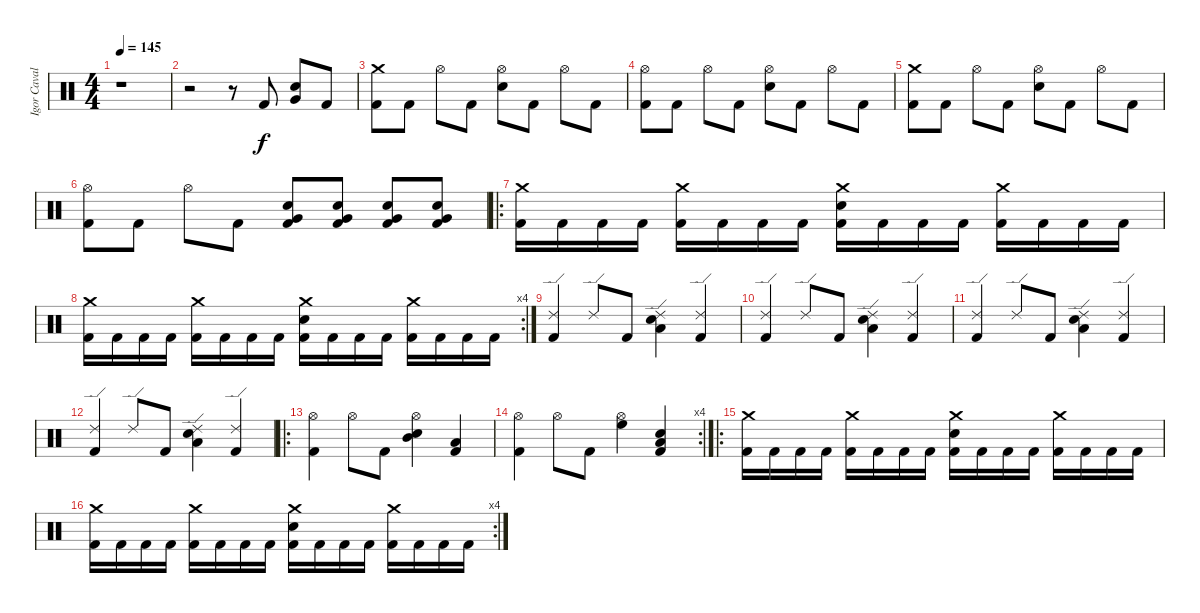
\track ("Igor Cavalera" "Igor Caval") {instrument percussion}
\staff {score}
\articulation defaults
\ts (4 4)
\tempo 145
\clef neutral
\ks c
r.1{dy f} |
r.2 r.8 "Kick (hit) 2".8 ("Very Low Tom (hit)" "Electric Snare (hit)").8 "Kick (hit) 2".8 |
("Crash medium (hit)" "Kick (hit) 2").8 "Kick (hit) 2".8 "Hi-Hat (open)".8 "Kick (hit) 2".8 ("Hi-Hat (open)" "Electric Snare (hit)").8 "Kick (hit) 2".8 "Hi-Hat (open)".8 "Kick (hit) 2".8 |
("Hi-Hat (open)" "Kick (hit) 2").8 "Kick (hit) 2".8 "Hi-Hat (open)".8 "Kick (hit) 2".8 ("Hi-Hat (open)" "Electric Snare (hit)").8 "Kick (hit) 2".8 "Hi-Hat (open)".8 "Kick (hit) 2".8 |
("Crash medium (hit)" "Kick (hit) 2").8 "Kick (hit) 2".8 "Hi-Hat (open)".8 "Kick (hit) 2".8 ("Hi-Hat (open)" "Electric Snare (hit)").8 "Kick (hit) 2".8 "Hi-Hat (open)".8 "Kick (hit) 2".8 |
("Hi-Hat (open)" "Kick (hit) 2").8 "Kick (hit) 2".8 "Hi-Hat (open)".8 "Kick (hit) 2".8 ("Very Low Tom (hit)" "Electric Snare (hit)" "Kick (hit) 2").8 ("Very Low Tom (hit)" "Electric Snare (hit)" "Kick (hit) 2").8 ("Very Low Tom (hit)" "Electric Snare (hit)" "Kick (hit) 2").8 ("Very Low Tom (hit)" "Electric Snare (hit)" "Kick (hit) 2").8 |
\ro
("Crash medium (hit)" "Kick (hit) 2").16 "Kick (hit) 2".16 "Kick (hit) 2".16 "Kick (hit) 2".16 ("Crash medium (hit)" "Kick (hit) 2").16 "Kick (hit) 2".16 "Kick (hit) 2".16 "Kick (hit) 2".16 ("Crash medium (hit)" "Electric Snare (hit)" "Kick (hit) 2").16 "Kick (hit) 2".16 "Kick (hit) 2".16 "Kick (hit) 2".16 ("Crash medium (hit)" "Kick (hit) 2").16 "Kick (hit) 2".16 "Kick (hit) 2".16 "Kick (hit) 2".16 |
\rc 4
("Crash medium (hit)" "Kick (hit) 2").16 "Kick (hit) 2".16 "Kick (hit) 2".16 "Kick (hit) 2".16 ("Crash medium (hit)" "Kick (hit) 2").16 "Kick (hit) 2".16 "Kick (hit) 2".16 "Kick (hit) 2".16 ("Crash medium (hit)" "Electric Snare (hit)" "Kick (hit) 2").16 "Kick (hit) 2".16 "Kick (hit) 2".16 "Kick (hit) 2".16 ("Crash medium (hit)" "Kick (hit) 2").16 "Kick (hit) 2".16 "Kick (hit) 2".16 "Kick (hit) 2".16 |
("Ride (edge) 2" "Kick (hit) 2").4 "Ride (edge) 2".8 "Kick (hit) 2".8 ("Ride (edge) 2" "Low Tom (hit)" "Electric Snare (hit)").4 ("Ride (edge) 2" "Kick (hit) 2").4 |
("Ride (edge) 2" "Kick (hit) 2").4 "Ride (edge) 2".8 "Kick (hit) 2".8 ("Ride (edge) 2" "Low Tom (hit)" "Electric Snare (hit)").4 ("Ride (edge) 2" "Kick (hit) 2").4 |
("Ride (edge) 2" "Kick (hit) 2").4 "Ride (edge) 2".8 "Kick (hit) 2".8 ("Ride (edge) 2" "Low Tom (hit)" "Electric Snare (hit)").4 ("Ride (edge) 2" "Kick (hit) 2").4 |
("Ride (edge) 2" "Kick (hit) 2").4 "Ride (edge) 2".8 "Kick (hit) 2".8 ("Ride (edge) 2" "Low Tom (hit)" "Electric Snare (hit)").4 ("Ride (edge) 2" "Kick (hit) 2").4 |
\ro
("Hi-Hat (open)" "Kick (hit) 2").4 "Hi-Hat (open)".8 "Kick (hit) 2".8 ("Hi-Hat (open)" "Mid Tom (hit)" "Electric Snare (hit)").4 ("Low Tom (hit)" "Kick (hit) 2").4 |
\rc 4
("Hi-Hat (open)" "Kick (hit) 2").4 "Hi-Hat (open)".8 "Kick (hit) 2".8 ("Hi-Hat (open)" "High Floor Tom (hit)").4 ("Low Tom (hit)" "Electric Snare (hit)" "Kick (hit) 2").4 |
\ro
("Crash medium (hit)" "Kick (hit) 2").16 "Kick (hit) 2".16 "Kick (hit) 2".16 "Kick (hit) 2".16 ("Crash medium (hit)" "Kick (hit) 2").16 "Kick (hit) 2".16 "Kick (hit) 2".16 "Kick (hit) 2".16 ("Crash medium (hit)" "Electric Snare (hit)" "Kick (hit) 2").16 "Kick (hit) 2".16 "Kick (hit) 2".16 "Kick (hit) 2".16 ("Crash medium (hit)" "Kick (hit) 2").16 "Kick (hit) 2".16 "Kick (hit) 2".16 "Kick (hit) 2".16 |
\rc 4
("Crash medium (hit)" "Kick (hit) 2").16 "Kick (hit) 2".16 "Kick (hit) 2".16 "Kick (hit) 2".16 ("Crash medium (hit)" "Kick (hit) 2").16 "Kick (hit) 2".16 "Kick (hit) 2".16 "Kick (hit) 2".16 ("Crash medium (hit)" "Electric Snare (hit)" "Kick (hit) 2").16 "Kick (hit) 2".16 "Kick (hit) 2".16 "Kick (hit) 2".16 ("Crash medium (hit)" "Kick (hit) 2").16 "Kick (hit) 2".16 "Kick (hit) 2".16 "Kick (hit) 2".16
